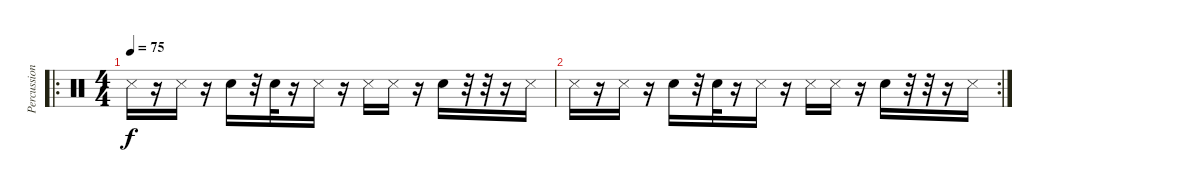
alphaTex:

\track ("Percussions" "Percussion") {instrument percussion}
\staff {score}
\articulation defaults
\ro
\ts (4 4)
\tempo 75
\clef neutral
\ks c "Snare (side stick) 3".16{dy f}
r.16 "Snare (side stick) 3".16 r.16 "Electric Snare (hit)".16 r.32 "Electric Snare (hit)".32 r.16 "Snare (side stick) 3".16 r.16 "Snare (side stick) 3".16 "Snare (side stick) 3".16 r.16 "Electric Snare (hit)".16 r.32 r.32 r.16 "Snare (side stick) 3".16 |
\rc 2 "Snare (side stick) 3".16
r.16 "Snare (side stick) 3".16 r.16 "Electric Snare (hit)".16 r.32 "Electric Snare (hit)".32 r.16 "Snare (side stick) 3".16 r.16 "Snare (side stick) 3".16 "Snare (side stick) 3".16 r.16 "Electric Snare (hit)".16 r.32 r.32 r.16 "Snare (side stick) 3".16
